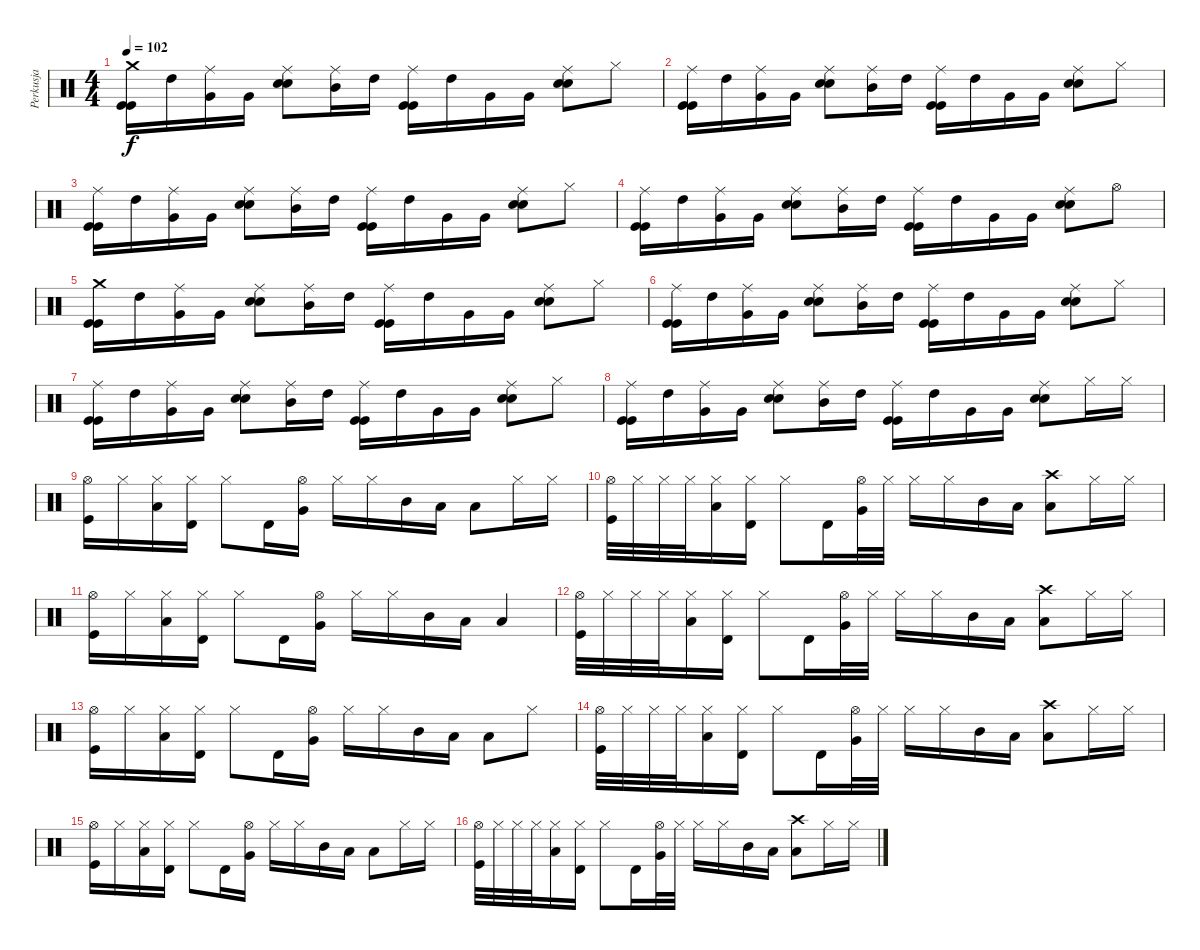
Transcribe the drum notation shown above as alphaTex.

\track ("Perkusja" "Perkusja") {instrument percussion}
\staff {score}
\articulation defaults
\ts (4 4)
\tempo 102
\clef neutral
\ks c
("Kick (hit)" "Kick (hit)" "Crash medium (hit)").16{dy f} "High Tom (hit)".16 ("Very Low Tom (hit)" "Ride (middle)").16 "Very Low Tom (hit)".16 ("Electric Snare (hit)" "Electric Snare (hit)" "Ride (middle)").8 ("Mid Tom (hit)" "Ride (middle)").16 "High Tom (hit)".16 ("Kick (hit)" "Kick (hit)" "Ride (middle)").16 "High Tom (hit)".16 "Very Low Tom (hit)".16 "Very Low Tom (hit)".16 ("Electric Snare (hit)" "Electric Snare (hit)" "Ride (middle)").8 "Hi-Hat (closed)".8 |
("Kick (hit)" "Kick (hit)" "Ride (middle)").16 "High Tom (hit)".16 ("Very Low Tom (hit)" "Ride (middle)").16 "Very Low Tom (hit)".16 ("Electric Snare (hit)" "Electric Snare (hit)" "Ride (middle)").8 ("Mid Tom (hit)" "Ride (middle)").16 "High Tom (hit)".16 ("Kick (hit)" "Kick (hit)" "Ride (middle)").16 "High Tom (hit)".16 "Very Low Tom (hit)".16 "Very Low Tom (hit)".16 ("Electric Snare (hit)" "Electric Snare (hit)" "Ride (middle)").8 "Hi-Hat (closed)".8 |
("Kick (hit)" "Kick (hit)" "Ride (middle)").16 "High Tom (hit)".16 ("Very Low Tom (hit)" "Ride (middle)").16 "Very Low Tom (hit)".16 ("Electric Snare (hit)" "Electric Snare (hit)" "Ride (middle)").8 ("Mid Tom (hit)" "Ride (middle)").16 "High Tom (hit)".16 ("Kick (hit)" "Kick (hit)" "Ride (middle)").16 "High Tom (hit)".16 "Very Low Tom (hit)".16 "Very Low Tom (hit)".16 ("Electric Snare (hit)" "Electric Snare (hit)" "Ride (middle)").8 "Hi-Hat (closed)".8 |
("Kick (hit)" "Kick (hit)" "Ride (middle)").16 "High Tom (hit)".16 ("Very Low Tom (hit)" "Ride (middle)").16 "Very Low Tom (hit)".16 ("Electric Snare (hit)" "Electric Snare (hit)" "Ride (middle)").8 ("Mid Tom (hit)" "Ride (middle)").16 "High Tom (hit)".16 ("Kick (hit)" "Kick (hit)" "Ride (middle)").16 "High Tom (hit)".16 "Very Low Tom (hit)".16 "Very Low Tom (hit)".16 ("Electric Snare (hit)" "Electric Snare (hit)" "Ride (middle)").8 "Hi-Hat (open)".8 |
("Kick (hit)" "Kick (hit)" "Crash medium (hit)").16 "High Tom (hit)".16 ("Very Low Tom (hit)" "Ride (middle)").16 "Very Low Tom (hit)".16 ("Electric Snare (hit)" "Electric Snare (hit)" "Ride (middle)").8 ("Mid Tom (hit)" "Ride (middle)").16 "High Tom (hit)".16 ("Kick (hit)" "Kick (hit)" "Ride (middle)").16 "High Tom (hit)".16 "Very Low Tom (hit)".16 "Very Low Tom (hit)".16 ("Electric Snare (hit)" "Electric Snare (hit)" "Ride (middle)").8 "Hi-Hat (closed)".8 |
("Kick (hit)" "Kick (hit)" "Ride (middle)").16 "High Tom (hit)".16 ("Very Low Tom (hit)" "Ride (middle)").16 "Very Low Tom (hit)".16 ("Electric Snare (hit)" "Electric Snare (hit)" "Ride (middle)").8 ("Mid Tom (hit)" "Ride (middle)").16 "High Tom (hit)".16 ("Kick (hit)" "Kick (hit)" "Ride (middle)").16 "High Tom (hit)".16 "Very Low Tom (hit)".16 "Very Low Tom (hit)".16 ("Electric Snare (hit)" "Electric Snare (hit)" "Ride (middle)").8 "Hi-Hat (closed)".8 |
("Kick (hit)" "Kick (hit)" "Ride (middle)").16 "High Tom (hit)".16 ("Very Low Tom (hit)" "Ride (middle)").16 "Very Low Tom (hit)".16 ("Electric Snare (hit)" "Electric Snare (hit)" "Ride (middle)").8 ("Mid Tom (hit)" "Ride (middle)").16 "High Tom (hit)".16 ("Kick (hit)" "Kick (hit)" "Ride (middle)").16 "High Tom (hit)".16 "Very Low Tom (hit)".16 "Very Low Tom (hit)".16 ("Electric Snare (hit)" "Electric Snare (hit)" "Ride (middle)").8 "Hi-Hat (closed)".8 |
("Kick (hit)" "Kick (hit)" "Ride (middle)").16 "High Tom (hit)".16 ("Very Low Tom (hit)" "Ride (middle)").16 "Very Low Tom (hit)".16 ("Electric Snare (hit)" "Electric Snare (hit)" "Ride (middle)").8 ("Mid Tom (hit)" "Ride (middle)").16 "High Tom (hit)".16 ("Kick (hit)" "Kick (hit)" "Ride (middle)").16 "High Tom (hit)".16 "Very Low Tom (hit)".16 "Very Low Tom (hit)".16 ("Electric Snare (hit)" "Electric Snare (hit)" "Ride (middle)").8 "Hi-Hat (closed)".16 "Hi-Hat (closed)".16 |
("Kick (hit)" "Hi-Hat (open)").16 "Hi-Hat (closed)".16 ("Low Floor Tom (hit)" "Hi-Hat (closed)").16 ("Timbale high (hit)" "Hi-Hat (closed)").16 "Hi-Hat (closed)".8 "Timbale high (hit)".16 ("Very Low Tom (hit)" "Hi-Hat (open)").16 "Hi-Hat (closed)".16 "Hi-Hat (closed)".16 "Mid Tom (hit)".16 "Low Tom (hit)".16 "Low Floor Tom (hit)".8 "Hi-Hat (closed)".16 "Hi-Hat (closed)".16 |
("Kick (hit)" "Hi-Hat (open)").32 "Hi-Hat (closed)".32 "Hi-Hat (closed)".32 "Hi-Hat (closed)".32 ("Low Floor Tom (hit)" "Hi-Hat (closed)").16 ("Timbale high (hit)" "Hi-Hat (closed)").16 "Hi-Hat (closed)".8 "Timbale high (hit)".16 ("Very Low Tom (hit)" "Hi-Hat (open)").32 "Hi-Hat (closed)".32 "Hi-Hat (closed)".16 "Hi-Hat (closed)".16 "Mid Tom (hit)".16 "Low Tom (hit)".16 ("Low Floor Tom (hit)" "Crash high (hit)").8 "Hi-Hat (closed)".16 "Hi-Hat (closed)".16 |
("Kick (hit)" "Hi-Hat (open)").16 "Hi-Hat (closed)".16 ("Low Floor Tom (hit)" "Hi-Hat (closed)").16 ("Timbale high (hit)" "Hi-Hat (closed)").16 "Hi-Hat (closed)".8 "Timbale high (hit)".16 ("Very Low Tom (hit)" "Hi-Hat (open)").16 "Hi-Hat (closed)".16 "Hi-Hat (closed)".16 "Mid Tom (hit)".16 "Low Tom (hit)".16 "Low Floor Tom (hit)".4 |
("Kick (hit)" "Hi-Hat (open)").32 "Hi-Hat (closed)".32 "Hi-Hat (closed)".32 "Hi-Hat (closed)".32 ("Low Floor Tom (hit)" "Hi-Hat (closed)").16 ("Timbale high (hit)" "Hi-Hat (closed)").16 "Hi-Hat (closed)".8 "Timbale high (hit)".16 ("Very Low Tom (hit)" "Hi-Hat (open)").32 "Hi-Hat (closed)".32 "Hi-Hat (closed)".16 "Hi-Hat (closed)".16 "Mid Tom (hit)".16 "Low Tom (hit)".16 ("Low Floor Tom (hit)" "Crash high (hit)").8 "Hi-Hat (closed)".16 "Hi-Hat (closed)".16 |
("Kick (hit)" "Hi-Hat (open)").16 "Hi-Hat (closed)".16 ("Low Floor Tom (hit)" "Hi-Hat (closed)").16 ("Timbale high (hit)" "Hi-Hat (closed)").16 "Hi-Hat (closed)".8 "Timbale high (hit)".16 ("Very Low Tom (hit)" "Hi-Hat (open)").16 "Hi-Hat (closed)".16 "Hi-Hat (closed)".16 "Mid Tom (hit)".16 "Low Tom (hit)".16 "Low Floor Tom (hit)".8 "Hi-Hat (closed)".8 |
("Kick (hit)" "Hi-Hat (open)").32 "Hi-Hat (closed)".32 "Hi-Hat (closed)".32 "Hi-Hat (closed)".32 ("Low Floor Tom (hit)" "Hi-Hat (closed)").16 ("Timbale high (hit)" "Hi-Hat (closed)").16 "Hi-Hat (closed)".8 "Timbale high (hit)".16 ("Very Low Tom (hit)" "Hi-Hat (open)").32 "Hi-Hat (closed)".32 "Hi-Hat (closed)".16 "Hi-Hat (closed)".16 "Mid Tom (hit)".16 "Low Tom (hit)".16 ("Low Floor Tom (hit)" "Crash high (hit)").8 "Hi-Hat (closed)".16 "Hi-Hat (closed)".16 |
("Kick (hit)" "Hi-Hat (open)").16 "Hi-Hat (closed)".16 ("Low Floor Tom (hit)" "Hi-Hat (closed)").16 ("Timbale high (hit)" "Hi-Hat (closed)").16 "Hi-Hat (closed)".8 "Timbale high (hit)".16 ("Very Low Tom (hit)" "Hi-Hat (open)").16 "Hi-Hat (closed)".16 "Hi-Hat (closed)".16 "Mid Tom (hit)".16 "Low Tom (hit)".16 "Low Floor Tom (hit)".8 "Hi-Hat (closed)".16 "Hi-Hat (closed)".16 |
("Kick (hit)" "Hi-Hat (open)").32 "Hi-Hat (closed)".32 "Hi-Hat (closed)".32 "Hi-Hat (closed)".32 ("Low Floor Tom (hit)" "Hi-Hat (closed)").16 ("Timbale high (hit)" "Hi-Hat (closed)").16 "Hi-Hat (closed)".8 "Timbale high (hit)".16 ("Very Low Tom (hit)" "Hi-Hat (open)").32 "Hi-Hat (closed)".32 "Hi-Hat (closed)".16 "Hi-Hat (closed)".16 "Mid Tom (hit)".16 "Low Tom (hit)".16 ("Low Floor Tom (hit)" "Crash high (hit)").8 "Hi-Hat (closed)".16 "Hi-Hat (closed)".16
